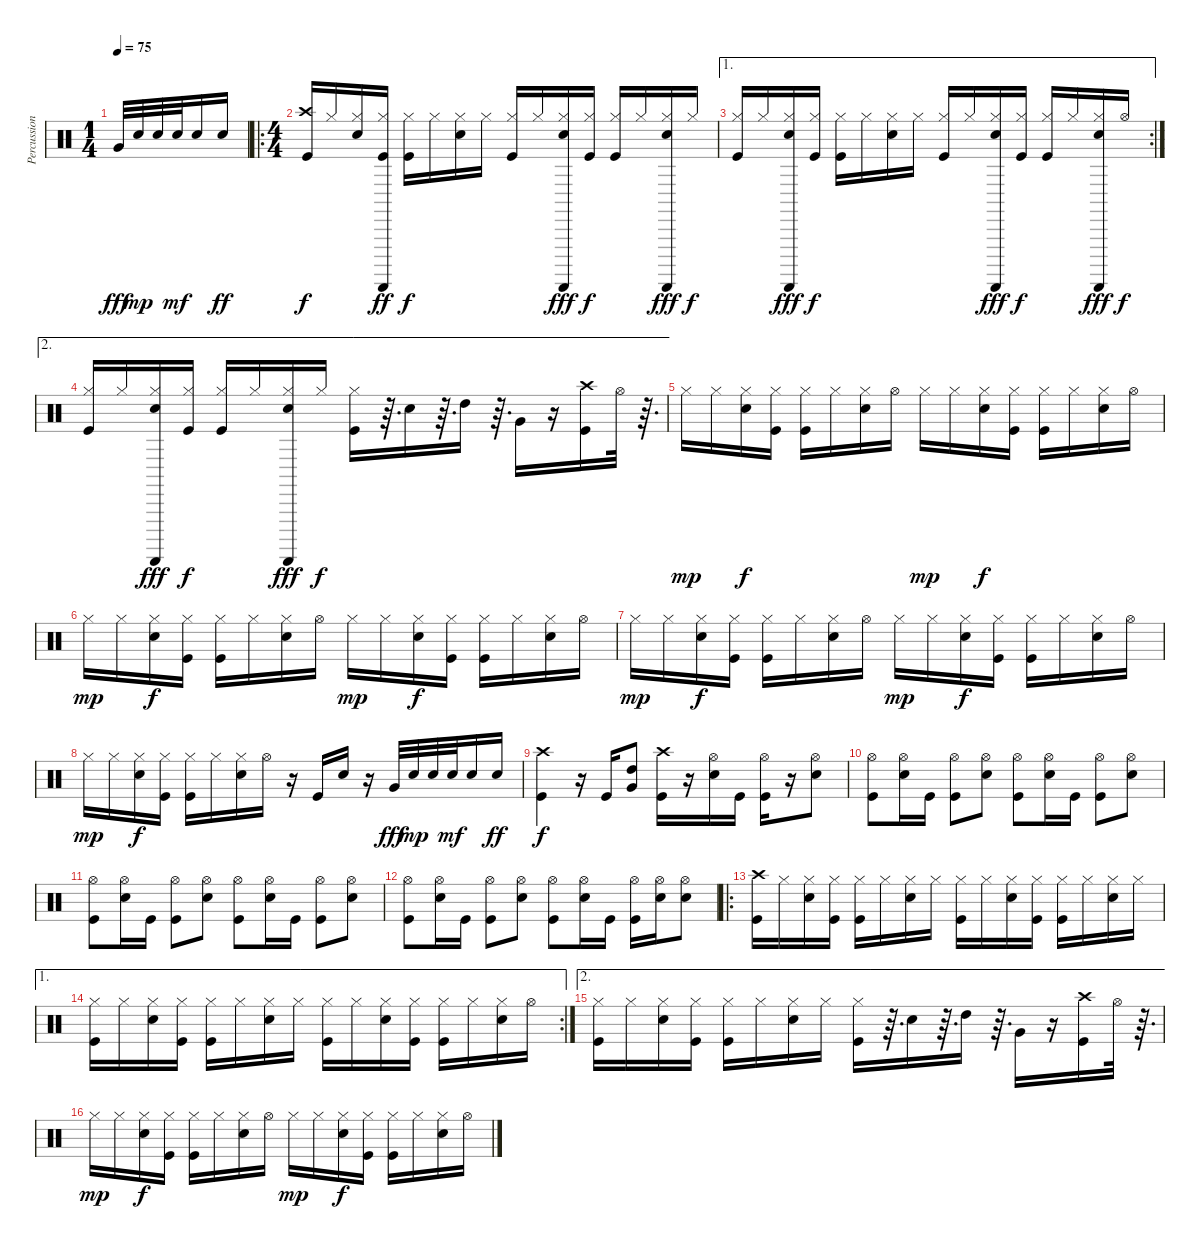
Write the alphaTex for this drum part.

\track ("Percussions" "Percussion") {instrument percussion}
\staff {score}
\articulation defaults
\ts (1 4)
\tempo 75
\clef neutral
\ks c "Very Low Tom (hit)".32{dy fff} "Snare (hit) 2".32{dy mp} "Snare (hit) 2".32 "Snare (hit) 2".32{dy mf} "Snare (hit) 2".16 "Snare (hit) 2".16{dy ff}
|
\ro
\ts (4 4)
("Crash high (hit)" "Kick (hit)").16{dy f} "Hi-Hat (closed)".16 ("Hi-Hat (closed)" "Snare (hit) 2").16 ("Guiro (scrap-return)" "Hi-Hat (closed)" "Kick (hit)").16{dy ff} ("Hi-Hat (closed)" "Kick (hit)").16{dy f} "Hi-Hat (closed)".16 ("Hi-Hat (closed)" "Snare (hit) 2").16 "Hi-Hat (closed)".16 ("Hi-Hat (closed)" "Kick (hit)").16 "Hi-Hat (closed)".16 ("Guiro (scrap-return)" "Hi-Hat (closed)" "Snare (hit) 2").16{dy fff} ("Hi-Hat (closed)" "Kick (hit)").16{dy f} ("Hi-Hat (closed)" "Kick (hit)").16 "Hi-Hat (closed)".16 ("Guiro (scrap-return)" "Hi-Hat (closed)" "Snare (hit) 2").16{dy fff} "Hi-Hat (closed)".16{dy f} |
\ae 1
\rc 2
("Hi-Hat (closed)" "Kick (hit)").16 "Hi-Hat (closed)".16 ("Guiro (scrap-return)" "Hi-Hat (closed)" "Snare (hit) 2").16{dy fff} ("Hi-Hat (closed)" "Kick (hit)").16{dy f} ("Hi-Hat (closed)" "Kick (hit)").16 "Hi-Hat (closed)".16 ("Hi-Hat (closed)" "Snare (hit) 2").16 "Hi-Hat (closed)".16 ("Hi-Hat (closed)" "Kick (hit)").16 "Hi-Hat (closed)".16 ("Guiro (scrap-return)" "Hi-Hat (closed)" "Snare (hit) 2").16{dy fff} ("Hi-Hat (closed)" "Kick (hit)").16{dy f} ("Hi-Hat (closed)" "Kick (hit)").16 "Hi-Hat (closed)".16 ("Guiro (scrap-return)" "Hi-Hat (closed)" "Snare (hit) 2").16{dy fff} "Hi-Hat (open)".16{dy f} |
\ae 2
("Hi-Hat (closed)" "Kick (hit)").16 "Hi-Hat (closed)".16 ("Guiro (scrap-return)" "Hi-Hat (closed)" "Snare (hit) 2").16{dy fff} ("Hi-Hat (closed)" "Kick (hit)").16{dy f} ("Hi-Hat (closed)" "Kick (hit)").16 "Hi-Hat (closed)".16 ("Guiro (scrap-return)" "Hi-Hat (closed)" "Snare (hit) 2").16{dy fff} "Hi-Hat (closed)".16{dy f} ("Hi-Hat (closed)" "Kick (hit)").16 r.64{d} "Snare (hit) 2".16 r.64{d} "High Tom (hit)".16 r.64{d} "Very Low Tom (hit)".16 r.16 ("Crash high (hit)" "Kick (hit)").16 "Hi-Hat (open)".32 r.64{d} |
"Hi-Hat (closed)".16{dy mp} "Hi-Hat (closed)".16 ("Hi-Hat (closed)" "Snare (hit) 2").16{dy f} ("Hi-Hat (closed)" "Kick (hit)").16 ("Hi-Hat (closed)" "Kick (hit)").16 "Hi-Hat (closed)".16 ("Hi-Hat (closed)" "Snare (hit) 2").16 "Hi-Hat (open)".16 "Hi-Hat (closed)".16{dy mp} "Hi-Hat (closed)".16 ("Hi-Hat (closed)" "Snare (hit) 2").16{dy f} ("Hi-Hat (closed)" "Kick (hit)").16 ("Hi-Hat (closed)" "Kick (hit)").16 "Hi-Hat (closed)".16 ("Hi-Hat (closed)" "Snare (hit) 2").16 "Hi-Hat (open)".16 |
"Hi-Hat (closed)".16{dy mp} "Hi-Hat (closed)".16 ("Hi-Hat (closed)" "Snare (hit) 2").16{dy f} ("Hi-Hat (closed)" "Kick (hit)").16 ("Hi-Hat (closed)" "Kick (hit)").16 "Hi-Hat (closed)".16 ("Hi-Hat (closed)" "Snare (hit) 2").16 "Hi-Hat (open)".16 "Hi-Hat (closed)".16{dy mp} "Hi-Hat (closed)".16 ("Hi-Hat (closed)" "Snare (hit) 2").16{dy f} ("Hi-Hat (closed)" "Kick (hit)").16 ("Hi-Hat (closed)" "Kick (hit)").16 "Hi-Hat (closed)".16 ("Hi-Hat (closed)" "Snare (hit) 2").16 "Hi-Hat (open)".16 |
"Hi-Hat (closed)".16{dy mp} "Hi-Hat (closed)".16 ("Hi-Hat (closed)" "Snare (hit) 2").16{dy f} ("Hi-Hat (closed)" "Kick (hit)").16 ("Hi-Hat (closed)" "Kick (hit)").16 "Hi-Hat (closed)".16 ("Hi-Hat (closed)" "Snare (hit) 2").16 "Hi-Hat (open)".16 "Hi-Hat (closed)".16{dy mp} "Hi-Hat (closed)".16 ("Hi-Hat (closed)" "Snare (hit) 2").16{dy f} ("Hi-Hat (closed)" "Kick (hit)").16 ("Hi-Hat (closed)" "Kick (hit)").16 "Hi-Hat (closed)".16 ("Hi-Hat (closed)" "Snare (hit) 2").16 "Hi-Hat (open)".16 |
"Hi-Hat (closed)".16{dy mp} "Hi-Hat (closed)".16 ("Hi-Hat (closed)" "Snare (hit) 2").16{dy f} ("Hi-Hat (closed)" "Kick (hit)").16 ("Hi-Hat (closed)" "Kick (hit)").16 "Hi-Hat (closed)".16 ("Hi-Hat (closed)" "Snare (hit) 2").16 "Hi-Hat (open)".16 r.16 "Kick (hit)".16 "Snare (hit) 2".16 r.16 "Very Low Tom (hit)".32{dy fff} "Snare (hit) 2".32{dy mp} "Snare (hit) 2".32 "Snare (hit) 2".32{dy mf} "Snare (hit) 2".16 "Snare (hit) 2".16{dy ff} |
("Crash high (hit)" "Kick (hit)").4{dy f} r.16 "Kick (hit)".16 ("High Tom (hit)" "Very Low Tom (hit)").8 ("Crash high (hit)" "Kick (hit)").16 r.16 ("Hi-Hat (open)" "Snare (hit) 2").16 "Kick (hit)".16 ("Hi-Hat (open)" "Kick (hit)").16 r.16 ("Hi-Hat (open)" "Snare (hit) 2").8 |
("Hi-Hat (open)" "Kick (hit)").8 ("Hi-Hat (open)" "Snare (hit) 2").16 "Kick (hit)".16 ("Hi-Hat (open)" "Kick (hit)").8 ("Hi-Hat (open)" "Snare (hit) 2").8 ("Hi-Hat (open)" "Kick (hit)").8 ("Hi-Hat (open)" "Snare (hit) 2").16 "Kick (hit)".16 ("Hi-Hat (open)" "Kick (hit)").8 ("Hi-Hat (open)" "Snare (hit) 2").8 |
("Hi-Hat (open)" "Kick (hit)").8 ("Hi-Hat (open)" "Snare (hit) 2").16 "Kick (hit)".16 ("Hi-Hat (open)" "Kick (hit)").8 ("Hi-Hat (open)" "Snare (hit) 2").8 ("Hi-Hat (open)" "Kick (hit)").8 ("Hi-Hat (open)" "Snare (hit) 2").16 "Kick (hit)".16 ("Hi-Hat (open)" "Kick (hit)").8 ("Hi-Hat (open)" "Snare (hit) 2").8 |
("Hi-Hat (open)" "Kick (hit)").8 ("Hi-Hat (open)" "Snare (hit) 2").16 "Kick (hit)".16 ("Hi-Hat (open)" "Kick (hit)").8 ("Hi-Hat (open)" "Snare (hit) 2").8 ("Hi-Hat (open)" "Kick (hit)").8 ("Hi-Hat (open)" "Snare (hit) 2").16 "Kick (hit)".16 ("Hi-Hat (open)" "Kick (hit)").16 ("Hi-Hat (open)" "Snare (hit) 2").16 ("Hi-Hat (open)" "Snare (hit) 2").8 |
\ro
("Crash high (hit)" "Kick (hit)").16 "Hi-Hat (closed)".16 ("Hi-Hat (closed)" "Snare (hit) 2").16 ("Hi-Hat (closed)" "Kick (hit)").16 ("Hi-Hat (closed)" "Kick (hit)").16 "Hi-Hat (closed)".16 ("Hi-Hat (closed)" "Snare (hit) 2").16 "Hi-Hat (closed)".16 ("Hi-Hat (closed)" "Kick (hit)").16 "Hi-Hat (closed)".16 ("Hi-Hat (closed)" "Snare (hit) 2").16 ("Hi-Hat (closed)" "Kick (hit)").16 ("Hi-Hat (closed)" "Kick (hit)").16 "Hi-Hat (closed)".16 ("Hi-Hat (closed)" "Snare (hit) 2").16 "Hi-Hat (closed)".16 |
\ae 1
\rc 2
("Hi-Hat (closed)" "Kick (hit)").16 "Hi-Hat (closed)".16 ("Hi-Hat (closed)" "Snare (hit) 2").16 ("Hi-Hat (closed)" "Kick (hit)").16 ("Hi-Hat (closed)" "Kick (hit)").16 "Hi-Hat (closed)".16 ("Hi-Hat (closed)" "Snare (hit) 2").16 "Hi-Hat (closed)".16 ("Hi-Hat (closed)" "Kick (hit)").16 "Hi-Hat (closed)".16 ("Hi-Hat (closed)" "Snare (hit) 2").16 ("Hi-Hat (closed)" "Kick (hit)").16 ("Hi-Hat (closed)" "Kick (hit)").16 "Hi-Hat (closed)".16 ("Hi-Hat (closed)" "Snare (hit) 2").16 "Hi-Hat (open)".16 |
\ae 2
("Hi-Hat (closed)" "Kick (hit)").16 "Hi-Hat (closed)".16 ("Hi-Hat (closed)" "Snare (hit) 2").16 ("Hi-Hat (closed)" "Kick (hit)").16 ("Hi-Hat (closed)" "Kick (hit)").16 "Hi-Hat (closed)".16 ("Hi-Hat (closed)" "Snare (hit) 2").16 "Hi-Hat (closed)".16 ("Hi-Hat (closed)" "Kick (hit)").16 r.64{d} "Snare (hit) 2".16 r.64{d} "High Tom (hit)".16 r.64{d} "Very Low Tom (hit)".16 r.16 ("Crash high (hit)" "Kick (hit)").16 "Hi-Hat (open)".32 r.64{d} |
"Hi-Hat (closed)".16{dy mp} "Hi-Hat (closed)".16 ("Hi-Hat (closed)" "Snare (hit) 2").16{dy f} ("Hi-Hat (closed)" "Kick (hit)").16 ("Hi-Hat (closed)" "Kick (hit)").16 "Hi-Hat (closed)".16 ("Hi-Hat (closed)" "Snare (hit) 2").16 "Hi-Hat (open)".16 "Hi-Hat (closed)".16{dy mp} "Hi-Hat (closed)".16 ("Hi-Hat (closed)" "Snare (hit) 2").16{dy f} ("Hi-Hat (closed)" "Kick (hit)").16 ("Hi-Hat (closed)" "Kick (hit)").16 "Hi-Hat (closed)".16 ("Hi-Hat (closed)" "Snare (hit) 2").16 "Hi-Hat (open)".16
